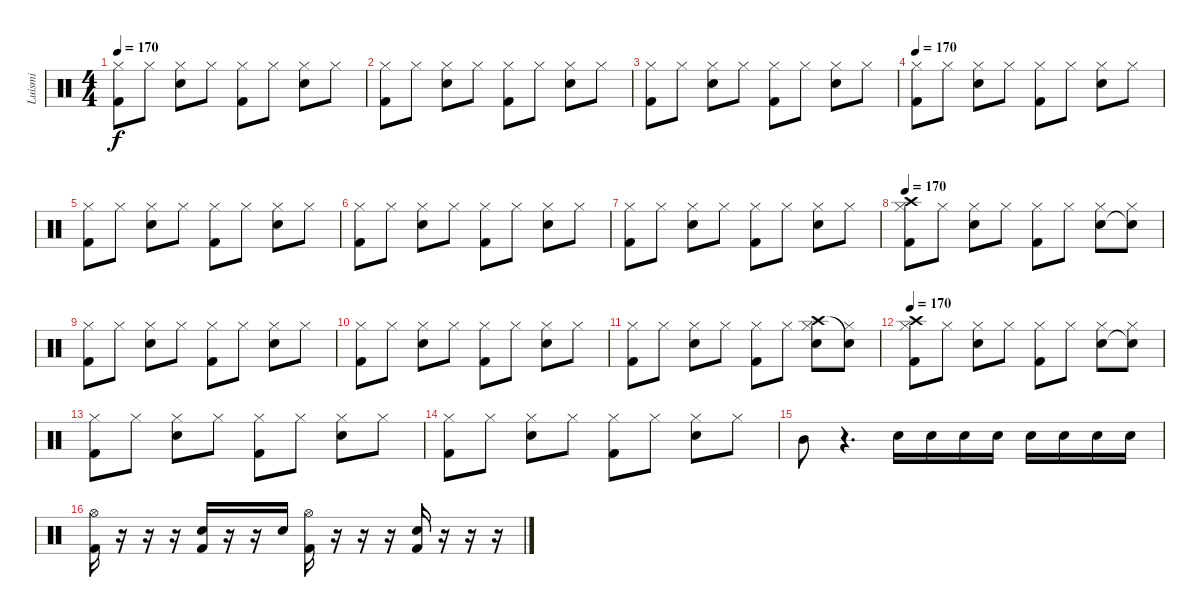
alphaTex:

\track ("Luismi" "Luismi") {instrument percussion}
\staff {score}
\articulation defaults
\ts (4 4)
\tempo 170
\clef neutral
\ks c
("Kick (hit) 2" "Hi-Hat (closed)").8{dy f} "Hi-Hat (closed)".8 ("Electric Snare (hit)" "Hi-Hat (closed)").8 "Hi-Hat (closed)".8 ("Kick (hit) 2" "Hi-Hat (closed)").8 "Hi-Hat (closed)".8 ("Electric Snare (hit)" "Hi-Hat (closed)").8 "Hi-Hat (closed)".8 |
("Kick (hit) 2" "Hi-Hat (closed)").8 "Hi-Hat (closed)".8 ("Electric Snare (hit)" "Hi-Hat (closed)").8 "Hi-Hat (closed)".8 ("Kick (hit) 2" "Hi-Hat (closed)").8 "Hi-Hat (closed)".8 ("Electric Snare (hit)" "Hi-Hat (closed)").8 "Hi-Hat (closed)".8 |
("Kick (hit) 2" "Hi-Hat (closed)").8 "Hi-Hat (closed)".8 ("Electric Snare (hit)" "Hi-Hat (closed)").8 "Hi-Hat (closed)".8 ("Kick (hit) 2" "Hi-Hat (closed)").8 "Hi-Hat (closed)".8 ("Electric Snare (hit)" "Hi-Hat (closed)").8 "Hi-Hat (closed)".8 |
\tempo 170
("Kick (hit) 2" "Hi-Hat (closed)").8 "Hi-Hat (closed)".8 ("Electric Snare (hit)" "Hi-Hat (closed)").8 "Hi-Hat (closed)".8 ("Kick (hit) 2" "Hi-Hat (closed)").8 "Hi-Hat (closed)".8 ("Electric Snare (hit)" "Hi-Hat (closed)").8 "Hi-Hat (closed)".8 |
("Kick (hit) 2" "Hi-Hat (closed)").8 "Hi-Hat (closed)".8 ("Electric Snare (hit)" "Hi-Hat (closed)").8 "Hi-Hat (closed)".8 ("Kick (hit) 2" "Hi-Hat (closed)").8 "Hi-Hat (closed)".8 ("Electric Snare (hit)" "Hi-Hat (closed)").8 "Hi-Hat (closed)".8 |
("Kick (hit) 2" "Hi-Hat (closed)").8 "Hi-Hat (closed)".8 ("Electric Snare (hit)" "Hi-Hat (closed)").8 "Hi-Hat (closed)".8 ("Kick (hit) 2" "Hi-Hat (closed)").8 "Hi-Hat (closed)".8 ("Electric Snare (hit)" "Hi-Hat (closed)").8 "Hi-Hat (closed)".8 |
("Kick (hit) 2" "Hi-Hat (closed)").8 "Hi-Hat (closed)".8 ("Electric Snare (hit)" "Hi-Hat (closed)").8 "Hi-Hat (closed)".8 ("Kick (hit) 2" "Hi-Hat (closed)").8 "Hi-Hat (closed)".8 ("Electric Snare (hit)" "Hi-Hat (closed)").8 "Hi-Hat (closed)".8 |
\tempo 170
("Crash high (hit)" "Kick (hit) 2" "Hi-Hat (closed)").8 "Hi-Hat (closed)".8 ("Electric Snare (hit)" "Hi-Hat (closed)").8 "Hi-Hat (closed)".8 ("Kick (hit) 2" "Hi-Hat (closed)").8 "Hi-Hat (closed)".8 ("Electric Snare (hit)" "Hi-Hat (closed)").8 ("Snare (hit)"{t} "Hi-Hat (closed)").8 |
("Kick (hit) 2" "Hi-Hat (closed)").8 "Hi-Hat (closed)".8 ("Electric Snare (hit)" "Hi-Hat (closed)").8 "Hi-Hat (closed)".8 ("Kick (hit) 2" "Hi-Hat (closed)").8 "Hi-Hat (closed)".8 ("Electric Snare (hit)" "Hi-Hat (closed)").8 "Hi-Hat (closed)".8 |
("Kick (hit) 2" "Hi-Hat (closed)").8 "Hi-Hat (closed)".8 ("Electric Snare (hit)" "Hi-Hat (closed)").8 "Hi-Hat (closed)".8 ("Kick (hit) 2" "Hi-Hat (closed)").8 "Hi-Hat (closed)".8 ("Electric Snare (hit)" "Hi-Hat (closed)").8 "Hi-Hat (closed)".8 |
("Kick (hit) 2" "Hi-Hat (closed)").8 "Hi-Hat (closed)".8 ("Electric Snare (hit)" "Hi-Hat (closed)").8 "Hi-Hat (closed)".8 ("Kick (hit) 2" "Hi-Hat (closed)").8 "Hi-Hat (closed)".8 ("Crash high (hit)" "Electric Snare (hit)" "Hi-Hat (closed)").8 ("Snare (hit)"{t} "Hi-Hat (closed)").8 |
\tempo 170
("Crash high (hit)" "Kick (hit) 2" "Hi-Hat (closed)").8 "Hi-Hat (closed)".8 ("Electric Snare (hit)" "Hi-Hat (closed)").8 "Hi-Hat (closed)".8 ("Kick (hit) 2" "Hi-Hat (closed)").8 "Hi-Hat (closed)".8 ("Electric Snare (hit)" "Hi-Hat (closed)").8 ("Snare (hit)"{t} "Hi-Hat (closed)").8 |
("Kick (hit) 2" "Hi-Hat (closed)").8 "Hi-Hat (closed)".8 ("Electric Snare (hit)" "Hi-Hat (closed)").8 "Hi-Hat (closed)".8 ("Kick (hit) 2" "Hi-Hat (closed)").8 "Hi-Hat (closed)".8 ("Electric Snare (hit)" "Hi-Hat (closed)").8 "Hi-Hat (closed)".8 |
("Kick (hit) 2" "Hi-Hat (closed)").8 "Hi-Hat (closed)".8 ("Electric Snare (hit)" "Hi-Hat (closed)").8 "Hi-Hat (closed)".8 ("Kick (hit) 2" "Hi-Hat (closed)").8 "Hi-Hat (closed)".8 ("Electric Snare (hit)" "Hi-Hat (closed)").8 "Hi-Hat (closed)".8 |
"Mid Tom (hit)".8 r.4{d} "Electric Snare (hit)".16 "Electric Snare (hit)".16 "Electric Snare (hit)".16 "Electric Snare (hit)".16 "Electric Snare (hit)".16 "Electric Snare (hit)".16 "Electric Snare (hit)".16 "Electric Snare (hit)".16 |
("Kick (hit) 2" "Hi-Hat (open)").16 r.16 r.16 r.16 ("Kick (hit) 2" "Electric Snare (hit)").16 r.16 r.16 "Electric Snare (hit)".16 ("Kick (hit) 2" "Hi-Hat (open)").16 r.16 r.16 r.16 ("Kick (hit) 2" "Electric Snare (hit)").16 r.16 r.16 r.16
